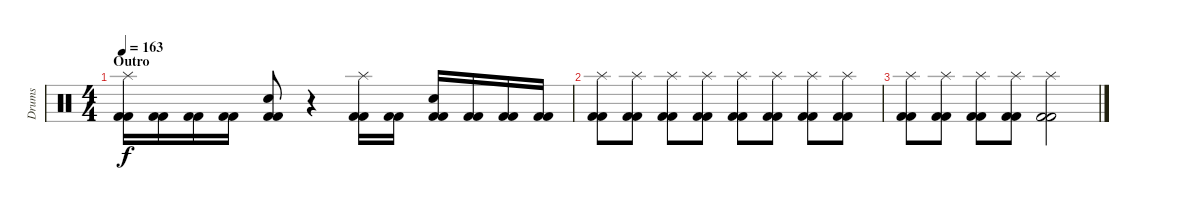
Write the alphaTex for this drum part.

\track ("Drums" "Drums") {instrument percussion}
\staff {score}
\articulation defaults
\ts (4 4)
\section ("" "Outro")
\tempo 163
\clef neutral
\ks c
("Kick (hit) 2" "Kick (hit) 2" "Splash (hit)").16{dy f} ("Kick (hit) 2" "Kick (hit) 2").16 ("Kick (hit) 2" "Kick (hit) 2").16 ("Kick (hit) 2" "Kick (hit) 2").16 ("Kick (hit) 2" "Kick (hit) 2" "Snare (hit) 2").8 r.4 ("Kick (hit) 2" "Kick (hit) 2" "Splash (hit)").16 ("Kick (hit) 2" "Kick (hit) 2").16 ("Kick (hit) 2" "Kick (hit) 2" "Snare (hit) 2").16 ("Kick (hit) 2" "Kick (hit) 2").16 ("Kick (hit) 2" "Kick (hit) 2").16 ("Kick (hit) 2" "Kick (hit) 2").16 |
("Kick (hit) 2" "Kick (hit) 2" "Splash (hit)").8 ("Kick (hit) 2" "Kick (hit) 2" "Splash (hit)").8 ("Kick (hit) 2" "Kick (hit) 2" "Splash (hit)").8 ("Kick (hit) 2" "Kick (hit) 2" "Splash (hit)").8 ("Kick (hit) 2" "Kick (hit) 2" "Splash (hit)").8 ("Kick (hit) 2" "Kick (hit) 2" "Splash (hit)").8 ("Kick (hit) 2" "Kick (hit) 2" "Splash (hit)").8 ("Kick (hit) 2" "Kick (hit) 2" "Splash (hit)").8 |
("Kick (hit) 2" "Kick (hit) 2" "Splash (hit)").8 ("Kick (hit) 2" "Kick (hit) 2" "Splash (hit)").8 ("Kick (hit) 2" "Kick (hit) 2" "Splash (hit)").8 ("Kick (hit) 2" "Kick (hit) 2" "Splash (hit)").8 ("Kick (hit) 2" "Kick (hit) 2" "Splash (hit)").2
